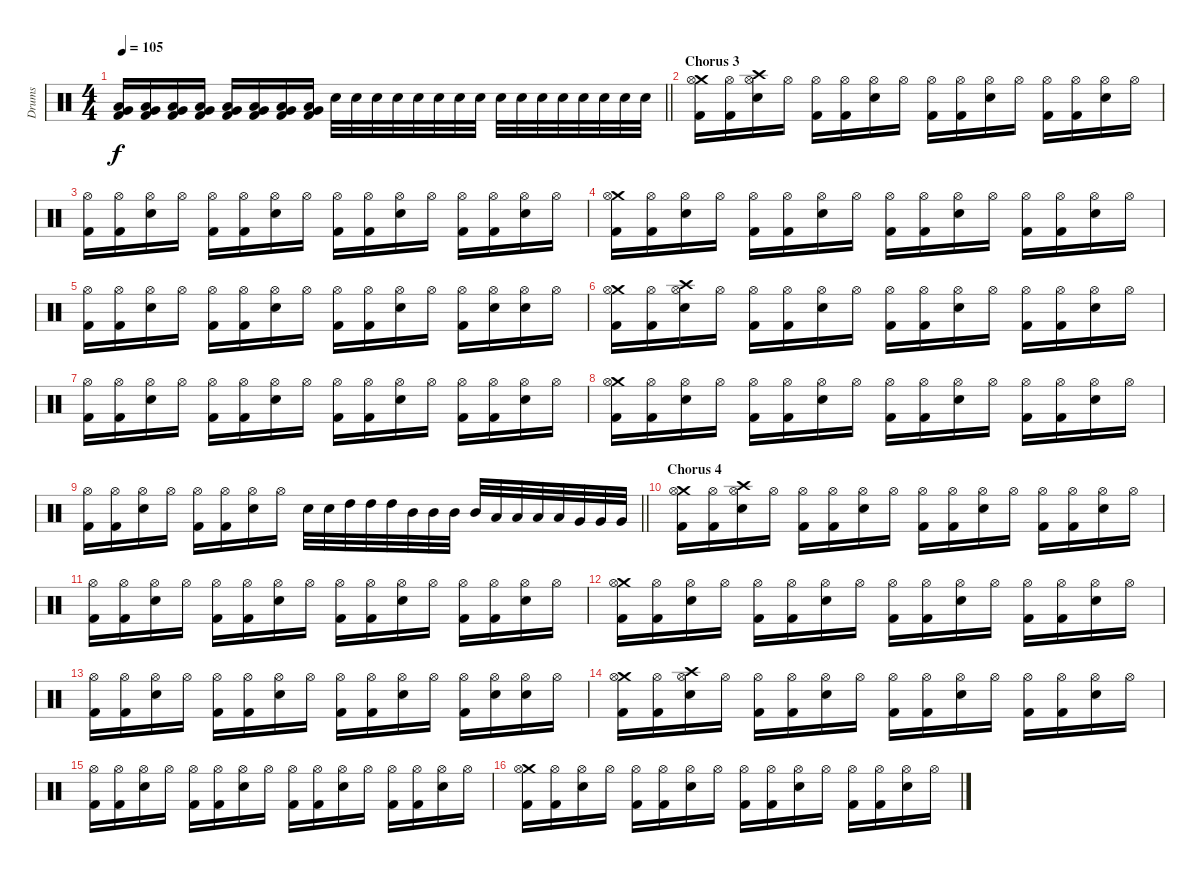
\track ("Drums" "Drums") {instrument percussion}
\staff {score}
\articulation defaults
\ts (4 4)
\tempo 105
\clef neutral
\barLineRight lightlight
\ks c
("Low Tom (hit)" "Very Low Tom (hit)" "Kick (hit) 2").16{dy f} ("Low Tom (hit)" "Very Low Tom (hit)" "Kick (hit) 2").16 ("Low Tom (hit)" "Very Low Tom (hit)" "Kick (hit) 2").16 ("Low Tom (hit)" "Very Low Tom (hit)" "Kick (hit) 2").16 ("Low Tom (hit)" "Very Low Tom (hit)" "Kick (hit) 2").16 ("Low Tom (hit)" "Very Low Tom (hit)" "Kick (hit) 2").16 ("Low Tom (hit)" "Very Low Tom (hit)" "Kick (hit) 2").16 ("Low Tom (hit)" "Very Low Tom (hit)" "Kick (hit) 2").16 "Electric Snare (hit)".32 "Electric Snare (hit)".32 "Electric Snare (hit)".32 "Electric Snare (hit)".32 "Electric Snare (hit)".32 "Electric Snare (hit)".32 "Electric Snare (hit)".32 "Electric Snare (hit)".32 "Electric Snare (hit)".32 "Electric Snare (hit)".32 "Electric Snare (hit)".32 "Electric Snare (hit)".32 "Electric Snare (hit)".32 "Electric Snare (hit)".32 "Electric Snare (hit)".32 "Electric Snare (hit)".32 |
\section ("" "Chorus 3")
("Crash medium (hit)" "Hi-Hat (open)" "Kick (hit) 2").16 ("Hi-Hat (open)" "Kick (hit) 2").16 ("Crash high (hit)" "Hi-Hat (open)" "Electric Snare (hit)").16 "Hi-Hat (open)".16 ("Hi-Hat (open)" "Kick (hit) 2").16 ("Hi-Hat (open)" "Kick (hit) 2").16 ("Hi-Hat (open)" "Electric Snare (hit)").16 "Hi-Hat (open)".16 ("Hi-Hat (open)" "Kick (hit) 2").16 ("Hi-Hat (open)" "Kick (hit) 2").16 ("Hi-Hat (open)" "Electric Snare (hit)").16 "Hi-Hat (open)".16 ("Hi-Hat (open)" "Kick (hit) 2").16 ("Hi-Hat (open)" "Kick (hit) 2").16 ("Hi-Hat (open)" "Electric Snare (hit)").16 "Hi-Hat (open)".16 |
("Hi-Hat (open)" "Kick (hit) 2").16 ("Hi-Hat (open)" "Kick (hit) 2").16 ("Hi-Hat (open)" "Electric Snare (hit)").16 "Hi-Hat (open)".16 ("Hi-Hat (open)" "Kick (hit) 2").16 ("Hi-Hat (open)" "Kick (hit) 2").16 ("Hi-Hat (open)" "Electric Snare (hit)").16 "Hi-Hat (open)".16 ("Hi-Hat (open)" "Kick (hit) 2").16 ("Hi-Hat (open)" "Kick (hit) 2").16 ("Hi-Hat (open)" "Electric Snare (hit)").16 "Hi-Hat (open)".16 ("Hi-Hat (open)" "Kick (hit) 2").16 ("Hi-Hat (open)" "Kick (hit) 2").16 ("Hi-Hat (open)" "Electric Snare (hit)").16 "Hi-Hat (open)".16 |
("Crash medium (hit)" "Hi-Hat (open)" "Kick (hit) 2").16 ("Hi-Hat (open)" "Kick (hit) 2").16 ("Hi-Hat (open)" "Electric Snare (hit)").16 "Hi-Hat (open)".16 ("Hi-Hat (open)" "Kick (hit) 2").16 ("Hi-Hat (open)" "Kick (hit) 2").16 ("Hi-Hat (open)" "Electric Snare (hit)").16 "Hi-Hat (open)".16 ("Hi-Hat (open)" "Kick (hit) 2").16 ("Hi-Hat (open)" "Kick (hit) 2").16 ("Hi-Hat (open)" "Electric Snare (hit)").16 "Hi-Hat (open)".16 ("Hi-Hat (open)" "Kick (hit) 2").16 ("Hi-Hat (open)" "Kick (hit) 2").16 ("Hi-Hat (open)" "Electric Snare (hit)").16 "Hi-Hat (open)".16 |
("Hi-Hat (open)" "Kick (hit) 2").16 ("Hi-Hat (open)" "Kick (hit) 2").16 ("Hi-Hat (open)" "Electric Snare (hit)").16 "Hi-Hat (open)".16 ("Hi-Hat (open)" "Kick (hit) 2").16 ("Hi-Hat (open)" "Kick (hit) 2").16 ("Hi-Hat (open)" "Electric Snare (hit)").16 "Hi-Hat (open)".16 ("Hi-Hat (open)" "Kick (hit) 2").16 ("Hi-Hat (open)" "Kick (hit) 2").16 ("Hi-Hat (open)" "Electric Snare (hit)").16 "Hi-Hat (open)".16 ("Hi-Hat (open)" "Kick (hit) 2").16 ("Hi-Hat (open)" "Electric Snare (hit)").16 ("Hi-Hat (open)" "Electric Snare (hit)").16 "Hi-Hat (open)".16 |
("Crash medium (hit)" "Hi-Hat (open)" "Kick (hit) 2").16 ("Hi-Hat (open)" "Kick (hit) 2").16 ("Crash high (hit)" "Hi-Hat (open)" "Electric Snare (hit)").16 "Hi-Hat (open)".16 ("Hi-Hat (open)" "Kick (hit) 2").16 ("Hi-Hat (open)" "Kick (hit) 2").16 ("Hi-Hat (open)" "Electric Snare (hit)").16 "Hi-Hat (open)".16 ("Hi-Hat (open)" "Kick (hit) 2").16 ("Hi-Hat (open)" "Kick (hit) 2").16 ("Hi-Hat (open)" "Electric Snare (hit)").16 "Hi-Hat (open)".16 ("Hi-Hat (open)" "Kick (hit) 2").16 ("Hi-Hat (open)" "Kick (hit) 2").16 ("Hi-Hat (open)" "Electric Snare (hit)").16 "Hi-Hat (open)".16 |
("Hi-Hat (open)" "Kick (hit) 2").16 ("Hi-Hat (open)" "Kick (hit) 2").16 ("Hi-Hat (open)" "Electric Snare (hit)").16 "Hi-Hat (open)".16 ("Hi-Hat (open)" "Kick (hit) 2").16 ("Hi-Hat (open)" "Kick (hit) 2").16 ("Hi-Hat (open)" "Electric Snare (hit)").16 "Hi-Hat (open)".16 ("Hi-Hat (open)" "Kick (hit) 2").16 ("Hi-Hat (open)" "Kick (hit) 2").16 ("Hi-Hat (open)" "Electric Snare (hit)").16 "Hi-Hat (open)".16 ("Hi-Hat (open)" "Kick (hit) 2").16 ("Hi-Hat (open)" "Kick (hit) 2").16 ("Hi-Hat (open)" "Electric Snare (hit)").16 "Hi-Hat (open)".16 |
("Crash medium (hit)" "Hi-Hat (open)" "Kick (hit) 2").16 ("Hi-Hat (open)" "Kick (hit) 2").16 ("Hi-Hat (open)" "Electric Snare (hit)").16 "Hi-Hat (open)".16 ("Hi-Hat (open)" "Kick (hit) 2").16 ("Hi-Hat (open)" "Kick (hit) 2").16 ("Hi-Hat (open)" "Electric Snare (hit)").16 "Hi-Hat (open)".16 ("Hi-Hat (open)" "Kick (hit) 2").16 ("Hi-Hat (open)" "Kick (hit) 2").16 ("Hi-Hat (open)" "Electric Snare (hit)").16 "Hi-Hat (open)".16 ("Hi-Hat (open)" "Kick (hit) 2").16 ("Hi-Hat (open)" "Kick (hit) 2").16 ("Hi-Hat (open)" "Electric Snare (hit)").16 "Hi-Hat (open)".16 |
\barLineRight lightlight
("Hi-Hat (open)" "Kick (hit) 2").16 ("Hi-Hat (open)" "Kick (hit) 2").16 ("Hi-Hat (open)" "Electric Snare (hit)").16 "Hi-Hat (open)".16 ("Hi-Hat (open)" "Kick (hit) 2").16 ("Hi-Hat (open)" "Kick (hit) 2").16 ("Hi-Hat (open)" "Electric Snare (hit)").16 "Hi-Hat (open)".16 "Electric Snare (hit)".32 "Electric Snare (hit)".32 "High Tom (hit)".32 "High Tom (hit)".32 "High Tom (hit)".32 "Mid Tom (hit)".32 "Mid Tom (hit)".32 "Mid Tom (hit)".32 "Mid Tom (hit)".32 "Low Tom (hit)".32 "Low Tom (hit)".32 "Low Tom (hit)".32 "Low Tom (hit)".32 "Very Low Tom (hit)".32 "Very Low Tom (hit)".32 "Very Low Tom (hit)".32 |
\section ("" "Chorus 4")
("Crash medium (hit)" "Hi-Hat (open)" "Kick (hit) 2").16 ("Hi-Hat (open)" "Kick (hit) 2").16 ("Crash high (hit)" "Hi-Hat (open)" "Electric Snare (hit)").16 "Hi-Hat (open)".16 ("Hi-Hat (open)" "Kick (hit) 2").16 ("Hi-Hat (open)" "Kick (hit) 2").16 ("Hi-Hat (open)" "Electric Snare (hit)").16 "Hi-Hat (open)".16 ("Hi-Hat (open)" "Kick (hit) 2").16 ("Hi-Hat (open)" "Kick (hit) 2").16 ("Hi-Hat (open)" "Electric Snare (hit)").16 "Hi-Hat (open)".16 ("Hi-Hat (open)" "Kick (hit) 2").16 ("Hi-Hat (open)" "Kick (hit) 2").16 ("Hi-Hat (open)" "Electric Snare (hit)").16 "Hi-Hat (open)".16 |
("Hi-Hat (open)" "Kick (hit) 2").16 ("Hi-Hat (open)" "Kick (hit) 2").16 ("Hi-Hat (open)" "Electric Snare (hit)").16 "Hi-Hat (open)".16 ("Hi-Hat (open)" "Kick (hit) 2").16 ("Hi-Hat (open)" "Kick (hit) 2").16 ("Hi-Hat (open)" "Electric Snare (hit)").16 "Hi-Hat (open)".16 ("Hi-Hat (open)" "Kick (hit) 2").16 ("Hi-Hat (open)" "Kick (hit) 2").16 ("Hi-Hat (open)" "Electric Snare (hit)").16 "Hi-Hat (open)".16 ("Hi-Hat (open)" "Kick (hit) 2").16 ("Hi-Hat (open)" "Kick (hit) 2").16 ("Hi-Hat (open)" "Electric Snare (hit)").16 "Hi-Hat (open)".16 |
("Crash medium (hit)" "Hi-Hat (open)" "Kick (hit) 2").16 ("Hi-Hat (open)" "Kick (hit) 2").16 ("Hi-Hat (open)" "Electric Snare (hit)").16 "Hi-Hat (open)".16 ("Hi-Hat (open)" "Kick (hit) 2").16 ("Hi-Hat (open)" "Kick (hit) 2").16 ("Hi-Hat (open)" "Electric Snare (hit)").16 "Hi-Hat (open)".16 ("Hi-Hat (open)" "Kick (hit) 2").16 ("Hi-Hat (open)" "Kick (hit) 2").16 ("Hi-Hat (open)" "Electric Snare (hit)").16 "Hi-Hat (open)".16 ("Hi-Hat (open)" "Kick (hit) 2").16 ("Hi-Hat (open)" "Kick (hit) 2").16 ("Hi-Hat (open)" "Electric Snare (hit)").16 "Hi-Hat (open)".16 |
("Hi-Hat (open)" "Kick (hit) 2").16 ("Hi-Hat (open)" "Kick (hit) 2").16 ("Hi-Hat (open)" "Electric Snare (hit)").16 "Hi-Hat (open)".16 ("Hi-Hat (open)" "Kick (hit) 2").16 ("Hi-Hat (open)" "Kick (hit) 2").16 ("Hi-Hat (open)" "Electric Snare (hit)").16 "Hi-Hat (open)".16 ("Hi-Hat (open)" "Kick (hit) 2").16 ("Hi-Hat (open)" "Kick (hit) 2").16 ("Hi-Hat (open)" "Electric Snare (hit)").16 "Hi-Hat (open)".16 ("Hi-Hat (open)" "Kick (hit) 2").16 ("Hi-Hat (open)" "Electric Snare (hit)").16 ("Hi-Hat (open)" "Electric Snare (hit)").16 "Hi-Hat (open)".16 |
("Crash medium (hit)" "Hi-Hat (open)" "Kick (hit) 2").16 ("Hi-Hat (open)" "Kick (hit) 2").16 ("Crash high (hit)" "Hi-Hat (open)" "Electric Snare (hit)").16 "Hi-Hat (open)".16 ("Hi-Hat (open)" "Kick (hit) 2").16 ("Hi-Hat (open)" "Kick (hit) 2").16 ("Hi-Hat (open)" "Electric Snare (hit)").16 "Hi-Hat (open)".16 ("Hi-Hat (open)" "Kick (hit) 2").16 ("Hi-Hat (open)" "Kick (hit) 2").16 ("Hi-Hat (open)" "Electric Snare (hit)").16 "Hi-Hat (open)".16 ("Hi-Hat (open)" "Kick (hit) 2").16 ("Hi-Hat (open)" "Kick (hit) 2").16 ("Hi-Hat (open)" "Electric Snare (hit)").16 "Hi-Hat (open)".16 |
("Hi-Hat (open)" "Kick (hit) 2").16 ("Hi-Hat (open)" "Kick (hit) 2").16 ("Hi-Hat (open)" "Electric Snare (hit)").16 "Hi-Hat (open)".16 ("Hi-Hat (open)" "Kick (hit) 2").16 ("Hi-Hat (open)" "Kick (hit) 2").16 ("Hi-Hat (open)" "Electric Snare (hit)").16 "Hi-Hat (open)".16 ("Hi-Hat (open)" "Kick (hit) 2").16 ("Hi-Hat (open)" "Kick (hit) 2").16 ("Hi-Hat (open)" "Electric Snare (hit)").16 "Hi-Hat (open)".16 ("Hi-Hat (open)" "Kick (hit) 2").16 ("Hi-Hat (open)" "Kick (hit) 2").16 ("Hi-Hat (open)" "Electric Snare (hit)").16 "Hi-Hat (open)".16 |
("Crash medium (hit)" "Hi-Hat (open)" "Kick (hit) 2").16 ("Hi-Hat (open)" "Kick (hit) 2").16 ("Hi-Hat (open)" "Electric Snare (hit)").16 "Hi-Hat (open)".16 ("Hi-Hat (open)" "Kick (hit) 2").16 ("Hi-Hat (open)" "Kick (hit) 2").16 ("Hi-Hat (open)" "Electric Snare (hit)").16 "Hi-Hat (open)".16 ("Hi-Hat (open)" "Kick (hit) 2").16 ("Hi-Hat (open)" "Kick (hit) 2").16 ("Hi-Hat (open)" "Electric Snare (hit)").16 "Hi-Hat (open)".16 ("Hi-Hat (open)" "Kick (hit) 2").16 ("Hi-Hat (open)" "Kick (hit) 2").16 ("Hi-Hat (open)" "Electric Snare (hit)").16 "Hi-Hat (open)".16
